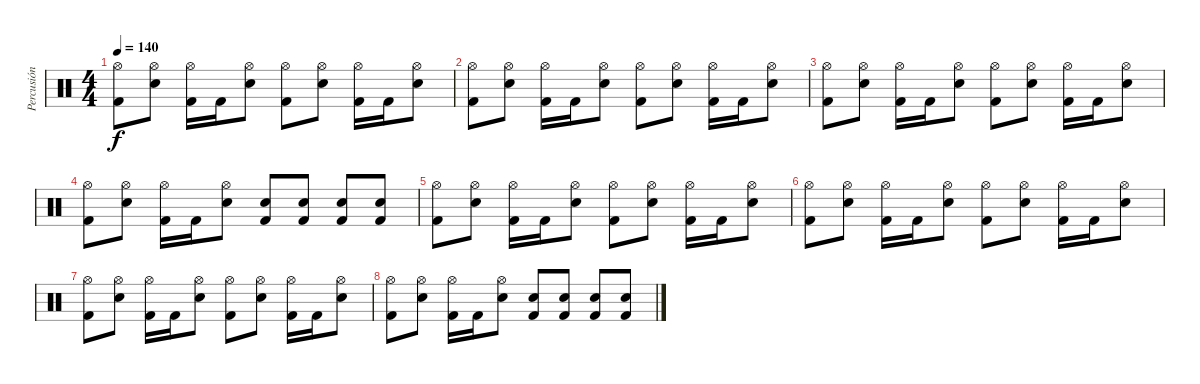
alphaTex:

\track ("Percusión" "Percusión") {instrument percussion}
\staff {score}
\articulation defaults
\ts (4 4)
\tempo 140
\clef neutral
\ks c
("Hi-Hat (open)" "Kick (hit) 2").8{dy f} ("Hi-Hat (open)" "Snare (hit) 2").8 ("Hi-Hat (open)" "Kick (hit) 2").16 "Kick (hit) 2".16 ("Hi-Hat (open)" "Snare (hit) 2").8 ("Hi-Hat (open)" "Kick (hit) 2").8 ("Hi-Hat (open)" "Snare (hit) 2").8 ("Hi-Hat (open)" "Kick (hit) 2").16 "Kick (hit) 2".16 ("Hi-Hat (open)" "Snare (hit) 2").8 |
("Hi-Hat (open)" "Kick (hit) 2").8{volume 4} ("Hi-Hat (open)" "Snare (hit) 2").8 ("Hi-Hat (open)" "Kick (hit) 2").16 "Kick (hit) 2".16 ("Hi-Hat (open)" "Snare (hit) 2").8 ("Hi-Hat (open)" "Kick (hit) 2").8 ("Hi-Hat (open)" "Snare (hit) 2").8 ("Hi-Hat (open)" "Kick (hit) 2").16 "Kick (hit) 2".16 ("Hi-Hat (open)" "Snare (hit) 2").8 |
("Hi-Hat (open)" "Kick (hit) 2").8 ("Hi-Hat (open)" "Snare (hit) 2").8 ("Hi-Hat (open)" "Kick (hit) 2").16 "Kick (hit) 2".16 ("Hi-Hat (open)" "Snare (hit) 2").8 ("Hi-Hat (open)" "Kick (hit) 2").8 ("Hi-Hat (open)" "Snare (hit) 2").8 ("Hi-Hat (open)" "Kick (hit) 2").16 "Kick (hit) 2".16 ("Hi-Hat (open)" "Snare (hit) 2").8 |
("Hi-Hat (open)" "Kick (hit) 2").8 ("Hi-Hat (open)" "Snare (hit) 2").8 ("Hi-Hat (open)" "Kick (hit) 2").16 "Kick (hit) 2".16 ("Hi-Hat (open)" "Snare (hit) 2").8 ("Snare (hit) 2" "Kick (hit) 2").8 ("Snare (hit) 2" "Kick (hit) 2").8 ("Snare (hit) 2" "Kick (hit) 2").8 ("Snare (hit) 2" "Kick (hit) 2").8 |
("Hi-Hat (open)" "Kick (hit) 2").8 ("Hi-Hat (open)" "Snare (hit) 2").8 ("Hi-Hat (open)" "Kick (hit) 2").16 "Kick (hit) 2".16 ("Hi-Hat (open)" "Snare (hit) 2").8 ("Hi-Hat (open)" "Kick (hit) 2").8 ("Hi-Hat (open)" "Snare (hit) 2").8 ("Hi-Hat (open)" "Kick (hit) 2").16 "Kick (hit) 2".16 ("Hi-Hat (open)" "Snare (hit) 2").8 |
("Hi-Hat (open)" "Kick (hit) 2").8{volume 0} ("Hi-Hat (open)" "Snare (hit) 2").8 ("Hi-Hat (open)" "Kick (hit) 2").16 "Kick (hit) 2".16 ("Hi-Hat (open)" "Snare (hit) 2").8 ("Hi-Hat (open)" "Kick (hit) 2").8 ("Hi-Hat (open)" "Snare (hit) 2").8 ("Hi-Hat (open)" "Kick (hit) 2").16 "Kick (hit) 2".16 ("Hi-Hat (open)" "Snare (hit) 2").8 |
("Hi-Hat (open)" "Kick (hit) 2").8 ("Hi-Hat (open)" "Snare (hit) 2").8 ("Hi-Hat (open)" "Kick (hit) 2").16 "Kick (hit) 2".16 ("Hi-Hat (open)" "Snare (hit) 2").8 ("Hi-Hat (open)" "Kick (hit) 2").8 ("Hi-Hat (open)" "Snare (hit) 2").8 ("Hi-Hat (open)" "Kick (hit) 2").16 "Kick (hit) 2".16 ("Hi-Hat (open)" "Snare (hit) 2").8 |
("Hi-Hat (open)" "Kick (hit) 2").8 ("Hi-Hat (open)" "Snare (hit) 2").8 ("Hi-Hat (open)" "Kick (hit) 2").16 "Kick (hit) 2".16 ("Hi-Hat (open)" "Snare (hit) 2").8 ("Snare (hit) 2" "Kick (hit) 2").8 ("Snare (hit) 2" "Kick (hit) 2").8 ("Snare (hit) 2" "Kick (hit) 2").8 ("Snare (hit) 2" "Kick (hit) 2").8
